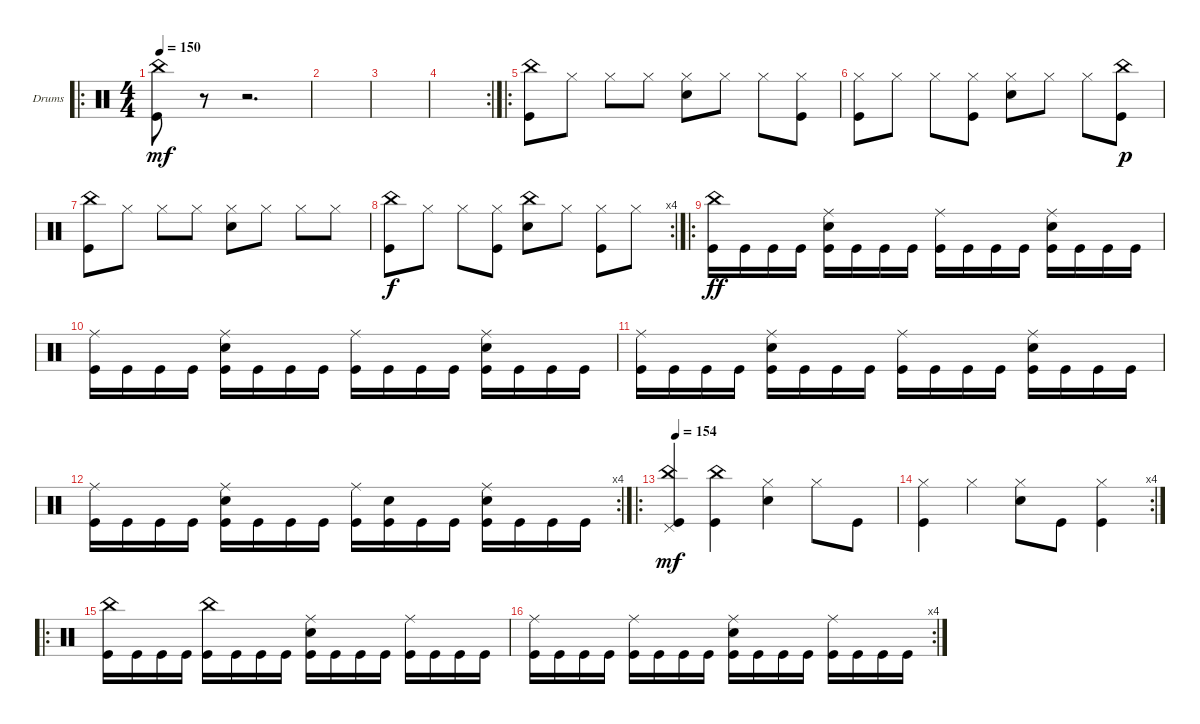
\bracketExtendMode groupsimilarinstruments
\firstSystemTrackNameOrientation horizontal
\otherSystemsTrackNameOrientation horizontal
\track ("Drumkit" "Drums") {instrument percussion}
\staff {score}
\articulation defaults
\ro
\ts (4 4)
\tempo 150
\clef neutral
\ks c
("Kick (hit)" "China (hit)").8{dy mf} r.8 r.2{d} |
|
|
\rc 2
|
\ro
("Kick (hit)" "China (hit)").8 "Hi-Hat (closed)".8 "Hi-Hat (closed)".8 "Hi-Hat (closed)".8 ("Hi-Hat (closed)" "Snare (hit) 2").8 "Hi-Hat (closed)".8 "Hi-Hat (closed)".8 ("Hi-Hat (closed)" "Kick (hit)").8 |
("Hi-Hat (closed)" "Kick (hit)").8 "Hi-Hat (closed)".8 "Hi-Hat (closed)".8 ("Hi-Hat (closed)" "Kick (hit)").8 ("Hi-Hat (closed)" "Snare (hit) 2").8 "Hi-Hat (closed)".8 "Hi-Hat (closed)".8 ("Kick (hit)" "China (hit)").8{dy p} |
("Kick (hit)" "China (hit)").8 "Hi-Hat (closed)".8 "Hi-Hat (closed)".8 "Hi-Hat (closed)".8 ("Hi-Hat (closed)" "Snare (hit) 2").8 "Hi-Hat (closed)".8 "Hi-Hat (closed)".8 "Hi-Hat (closed)".8 |
\rc 4
("Kick (hit)" "China (hit)").8{dy f} "Hi-Hat (closed)".8 "Hi-Hat (closed)".8 ("Hi-Hat (closed)" "Kick (hit)").8 ("Snare (hit) 2" "China (hit)").8 "Hi-Hat (closed)".8 ("Hi-Hat (closed)" "Kick (hit)").8 "Hi-Hat (closed)".8 |
\ro
("Kick (hit)" "China (hit)").16{dy ff} "Kick (hit)".16 "Kick (hit)".16 "Kick (hit)".16 ("Kick (hit)" "Snare (hit) 2" "Ride (middle)").16 "Kick (hit)".16 "Kick (hit)".16 "Kick (hit)".16 ("Kick (hit)" "Ride (middle)").16 "Kick (hit)".16 "Kick (hit)".16 "Kick (hit)".16 ("Kick (hit)" "Ride (middle)" "Snare (hit) 2").16 "Kick (hit)".16 "Kick (hit)".16 "Kick (hit)".16 |
("Kick (hit)" "Ride (middle)").16 "Kick (hit)".16 "Kick (hit)".16 "Kick (hit)".16 ("Kick (hit)" "Ride (middle)" "Snare (hit) 2").16 "Kick (hit)".16 "Kick (hit)".16 "Kick (hit)".16 ("Kick (hit)" "Ride (middle)").16 "Kick (hit)".16 "Kick (hit)".16 "Kick (hit)".16 ("Kick (hit)" "Ride (middle)" "Snare (hit) 2").16 "Kick (hit)".16 "Kick (hit)".16 "Kick (hit)".16 |
("Kick (hit)" "Ride (middle)").16 "Kick (hit)".16 "Kick (hit)".16 "Kick (hit)".16 ("Kick (hit)" "Snare (hit) 2" "Ride (middle)").16 "Kick (hit)".16 "Kick (hit)".16 "Kick (hit)".16 ("Kick (hit)" "Ride (middle)").16 "Kick (hit)".16 "Kick (hit)".16 "Kick (hit)".16 ("Kick (hit)" "Ride (middle)" "Snare (hit) 2").16 "Kick (hit)".16 "Kick (hit)".16 "Kick (hit)".16 |
\rc 4
("Kick (hit)" "Ride (middle)").16 "Kick (hit)".16 "Kick (hit)".16 "Kick (hit)".16 ("Kick (hit)" "Ride (middle)" "Snare (hit) 2").16 "Kick (hit)".16 "Kick (hit)".16 "Kick (hit)".16 ("Kick (hit)" "Ride (middle)").16 ("Kick (hit)" "Snare (hit) 2").16 "Kick (hit)".16 "Kick (hit)".16 ("Kick (hit)" "Ride (middle)" "Snare (hit) 2").16 "Kick (hit)".16 "Kick (hit)".16 "Kick (hit)".16 |
\ro
\tempo (154 0.01875)
("Kick (hit)" "China (hit)" "Pedal Hi-Hat (hit)").4{dy mf} ("Kick (hit)" "China (hit)").4 ("Snare (hit) 2" "Hi-Hat (closed)").4 "Hi-Hat (closed)".8 "Kick (hit)".8 |
\rc 4
("Kick (hit)" "Hi-Hat (closed)").4 "Hi-Hat (closed)".4 ("Snare (hit) 2" "Hi-Hat (closed)").8 "Kick (hit)".8 ("Kick (hit)" "Hi-Hat (closed)").4 |
\ro
("Kick (hit)" "China (hit)").16 "Kick (hit)".16 "Kick (hit)".16 "Kick (hit)".16 ("Kick (hit)" "China (hit)").16 "Kick (hit)".16 "Kick (hit)".16 "Kick (hit)".16 ("Kick (hit)" "Ride (middle)" "Snare (hit) 2").16 "Kick (hit)".16 "Kick (hit)".16 "Kick (hit)".16 ("Kick (hit)" "Ride (middle)").16 "Kick (hit)".16 "Kick (hit)".16 "Kick (hit)".16 |
\rc 4
("Kick (hit)" "Ride (middle)").16 "Kick (hit)".16 "Kick (hit)".16 "Kick (hit)".16 ("Kick (hit)" "Ride (middle)").16 "Kick (hit)".16 "Kick (hit)".16 "Kick (hit)".16 ("Kick (hit)" "Ride (middle)" "Snare (hit) 2").16 "Kick (hit)".16 "Kick (hit)".16 "Kick (hit)".16 ("Kick (hit)" "Ride (middle)").16 "Kick (hit)".16 "Kick (hit)".16 "Kick (hit)".16
